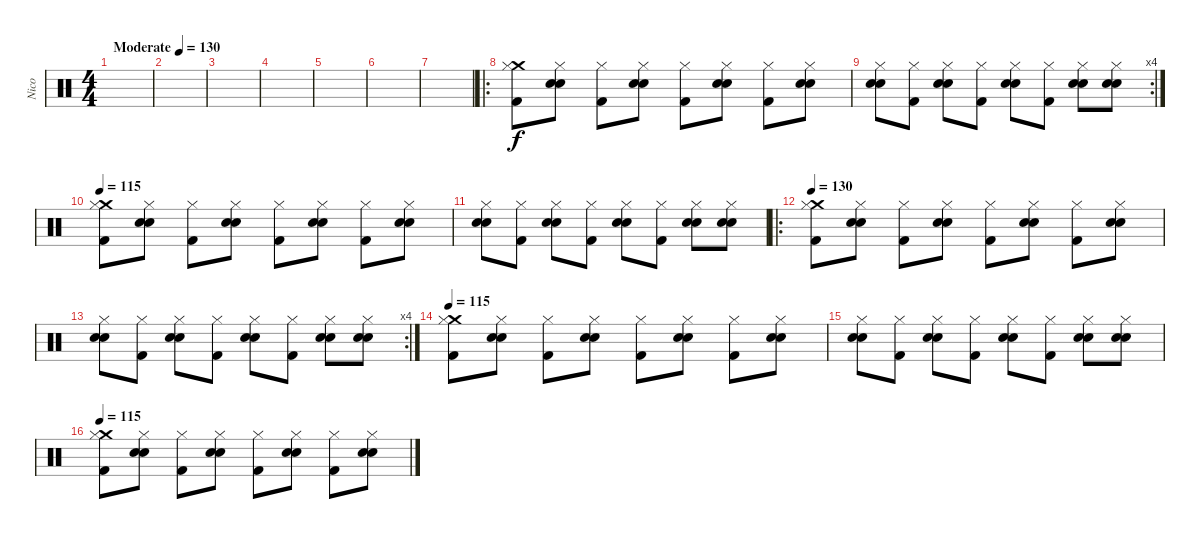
\track ("Nico" "Nico") {instrument percussion}
\staff {score}
\articulation defaults
\ts (4 4)
\tempo (130 "Moderate")
\clef neutral
\ks c
|
|
|
|
|
|
|
\ro
("Crash medium (hit)" "Hi-Hat (closed)" "Kick (hit) 2").8 ("Hi-Hat (closed)" "Snare (hit) 2" "Electric Snare (hit)").8 ("Hi-Hat (closed)" "Kick (hit) 2").8 ("Hi-Hat (closed)" "Snare (hit) 2" "Electric Snare (hit)").8 ("Hi-Hat (closed)" "Kick (hit) 2").8 ("Hi-Hat (closed)" "Electric Snare (hit)" "Snare (hit) 2").8 ("Hi-Hat (closed)" "Kick (hit) 2").8 ("Hi-Hat (closed)" "Snare (hit) 2" "Electric Snare (hit)").8 |
\rc 4
("Hi-Hat (closed)" "Snare (hit) 2" "Electric Snare (hit)").8 ("Hi-Hat (closed)" "Kick (hit) 2").8 ("Hi-Hat (closed)" "Electric Snare (hit)" "Snare (hit) 2").8 ("Hi-Hat (closed)" "Kick (hit) 2").8 ("Hi-Hat (closed)" "Snare (hit) 2" "Electric Snare (hit)").8 ("Hi-Hat (closed)" "Kick (hit) 2").8 ("Hi-Hat (closed)" "Electric Snare (hit)" "Snare (hit) 2").8 ("Hi-Hat (closed)" "Electric Snare (hit)" "Snare (hit) 2").8 |
\tempo 115
("Crash medium (hit)" "Hi-Hat (closed)" "Kick (hit) 2").8 ("Hi-Hat (closed)" "Snare (hit) 2" "Electric Snare (hit)").8 ("Hi-Hat (closed)" "Kick (hit) 2").8 ("Hi-Hat (closed)" "Snare (hit) 2" "Electric Snare (hit)").8 ("Hi-Hat (closed)" "Kick (hit) 2").8 ("Hi-Hat (closed)" "Electric Snare (hit)" "Snare (hit) 2").8 ("Hi-Hat (closed)" "Kick (hit) 2").8 ("Hi-Hat (closed)" "Snare (hit) 2" "Electric Snare (hit)").8 |
("Hi-Hat (closed)" "Snare (hit) 2" "Electric Snare (hit)").8 ("Hi-Hat (closed)" "Kick (hit) 2").8 ("Hi-Hat (closed)" "Electric Snare (hit)" "Snare (hit) 2").8 ("Hi-Hat (closed)" "Kick (hit) 2").8 ("Hi-Hat (closed)" "Snare (hit) 2" "Electric Snare (hit)").8 ("Hi-Hat (closed)" "Kick (hit) 2").8 ("Hi-Hat (closed)" "Electric Snare (hit)" "Snare (hit) 2").8 ("Hi-Hat (closed)" "Electric Snare (hit)" "Snare (hit) 2").8 |
\ro
\tempo 130
("Crash medium (hit)" "Hi-Hat (closed)" "Kick (hit) 2").8 ("Hi-Hat (closed)" "Snare (hit) 2" "Electric Snare (hit)").8 ("Hi-Hat (closed)" "Kick (hit) 2").8 ("Hi-Hat (closed)" "Snare (hit) 2" "Electric Snare (hit)").8 ("Hi-Hat (closed)" "Kick (hit) 2").8 ("Hi-Hat (closed)" "Electric Snare (hit)" "Snare (hit) 2").8 ("Hi-Hat (closed)" "Kick (hit) 2").8 ("Hi-Hat (closed)" "Snare (hit) 2" "Electric Snare (hit)").8 |
\rc 4
("Hi-Hat (closed)" "Snare (hit) 2" "Electric Snare (hit)").8 ("Hi-Hat (closed)" "Kick (hit) 2").8 ("Hi-Hat (closed)" "Electric Snare (hit)" "Snare (hit) 2").8 ("Hi-Hat (closed)" "Kick (hit) 2").8 ("Hi-Hat (closed)" "Snare (hit) 2" "Electric Snare (hit)").8 ("Hi-Hat (closed)" "Kick (hit) 2").8 ("Hi-Hat (closed)" "Electric Snare (hit)" "Snare (hit) 2").8 ("Hi-Hat (closed)" "Electric Snare (hit)" "Snare (hit) 2").8 |
\tempo 115
("Crash medium (hit)" "Hi-Hat (closed)" "Kick (hit) 2").8 ("Hi-Hat (closed)" "Snare (hit) 2" "Electric Snare (hit)").8 ("Hi-Hat (closed)" "Kick (hit) 2").8 ("Hi-Hat (closed)" "Snare (hit) 2" "Electric Snare (hit)").8 ("Hi-Hat (closed)" "Kick (hit) 2").8 ("Hi-Hat (closed)" "Electric Snare (hit)" "Snare (hit) 2").8 ("Hi-Hat (closed)" "Kick (hit) 2").8 ("Hi-Hat (closed)" "Snare (hit) 2" "Electric Snare (hit)").8 |
("Hi-Hat (closed)" "Snare (hit) 2" "Electric Snare (hit)").8 ("Hi-Hat (closed)" "Kick (hit) 2").8 ("Hi-Hat (closed)" "Electric Snare (hit)" "Snare (hit) 2").8 ("Hi-Hat (closed)" "Kick (hit) 2").8 ("Hi-Hat (closed)" "Snare (hit) 2" "Electric Snare (hit)").8 ("Hi-Hat (closed)" "Kick (hit) 2").8 ("Hi-Hat (closed)" "Electric Snare (hit)" "Snare (hit) 2").8 ("Hi-Hat (closed)" "Electric Snare (hit)" "Snare (hit) 2").8 |
\tempo 115
("Crash medium (hit)" "Hi-Hat (closed)" "Kick (hit) 2").8 ("Hi-Hat (closed)" "Snare (hit) 2" "Electric Snare (hit)").8 ("Hi-Hat (closed)" "Kick (hit) 2").8 ("Hi-Hat (closed)" "Snare (hit) 2" "Electric Snare (hit)").8 ("Hi-Hat (closed)" "Kick (hit) 2").8 ("Hi-Hat (closed)" "Electric Snare (hit)" "Snare (hit) 2").8 ("Hi-Hat (closed)" "Kick (hit) 2").8 ("Hi-Hat (closed)" "Snare (hit) 2" "Electric Snare (hit)").8
